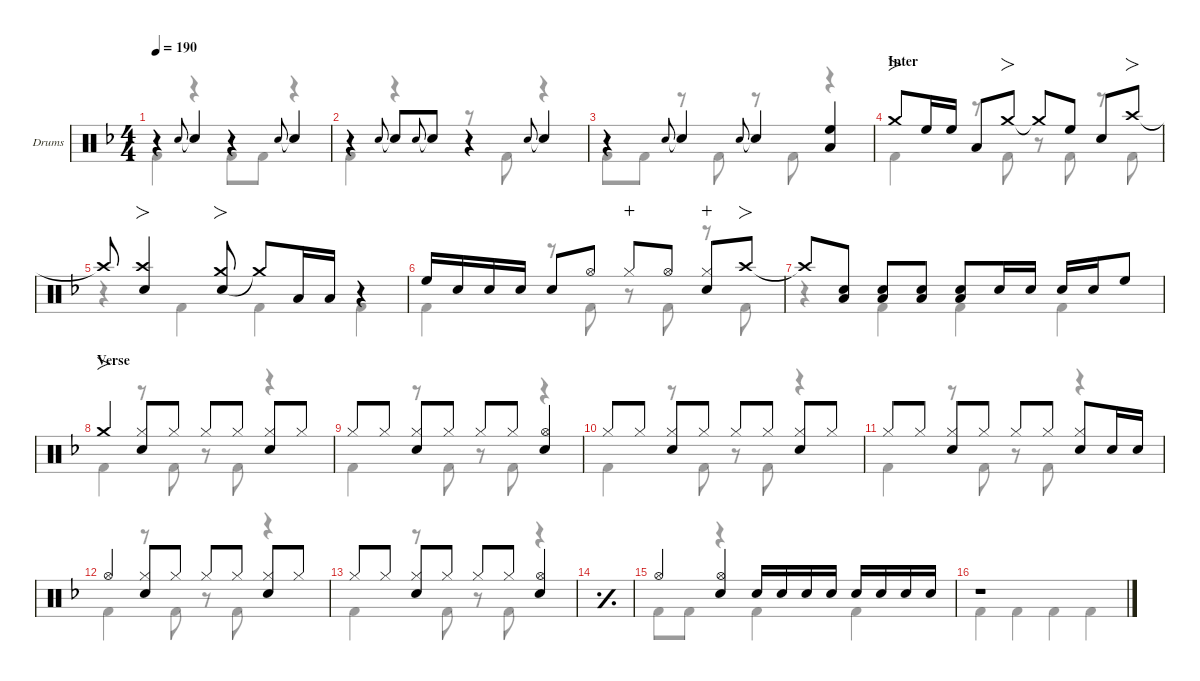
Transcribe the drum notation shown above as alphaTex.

\defaultSystemsLayout 4
\hideDynamics
\bracketExtendMode nobrackets
\firstSystemTrackNameOrientation horizontal
\track ("Drums" "Drums") {defaultSystemsLayout 4 instrument percussion}
\staff {score}
\articulation defaults
\voice
\ts (4 4)
\tempo 190
\clef neutral
\ks f
r.4{dy f} "Snare (hit) 2"{acc forcenatural}.8{gr onbeat} "Snare (hit) 2"{t acc forcenatural}.4 r.4 "Snare (hit) 2"{acc forcenatural}.8{gr onbeat} "Snare (hit) 2"{t acc forcenatural}.4 |
r.4 "Snare (hit) 2"{acc forcenatural}.8{gr onbeat} "Snare (hit) 2"{t acc forcenatural}.8 "Snare (hit) 2"{acc forcenatural}.8{gr onbeat} "Snare (hit) 2"{t acc forcenatural}.8 r.4 "Snare (hit) 2"{acc forcenatural}.8{gr onbeat} "Snare (hit) 2"{t acc forcenatural}.4 |
r.4 "Snare (hit) 2"{acc forcenatural}.8{gr onbeat} "Snare (hit) 2"{t acc forcenatural}.4 "Snare (hit) 2"{acc forcenatural}.8{gr onbeat} "Snare (hit) 2"{t acc forcenatural}.4 ("Low Tom (hit)"{acc forcenatural} "High Floor Tom (hit)"{acc forcenatural}).4 |
\section ("" "Inter")
"Crash medium (hit)"{acc forcenatural}.8{fo} "High Floor Tom (hit)"{acc forcenatural}.16 "High Floor Tom (hit)"{acc forcenatural}.16{beam split} "Low Tom (hit)"{acc forcenatural}.8 "Crash medium (hit)"{acc forcenatural}.8{fo} "Crash medium (hit)"{t acc forcenatural}.8 "High Floor Tom (hit)"{acc forcenatural}.8 "Snare (hit) 2"{acc forcenatural}.8 "Crash high (hit)"{acc forcenatural}.8{fo} |
"Crash high (hit)"{t acc forcenatural}.8 ("Snare (hit) 2"{acc forcenatural} "Crash high (hit)"{acc forcenatural}).4{fo} ("Snare (hit) 2"{acc forcenatural} "Crash medium (hit)"{acc forcenatural}).8{fo} "Crash medium (hit)"{t acc forcenatural}.8 "Low Tom (hit)"{acc forcenatural}.16 "Low Tom (hit)"{acc forcenatural}.16 r.4 |
"High Floor Tom (hit)"{acc forcenatural}.16 "Snare (hit) 2"{acc forcenatural}.16{dy mf} "Snare (hit) 2"{acc forcenatural}.16{dy f} "Snare (hit) 2"{acc forcenatural}.16{dy mf beam split} "Snare (hit) 2"{acc forcenatural}.8{dy f} "Hi-Hat (open)"{acc forcenatural}.8 "Hi-Hat (closed)"{acc forcenatural}.8{dy mp wahc} "Hi-Hat (open)"{acc forcenatural}.8{dy f} ("Hi-Hat (closed)"{acc forcenatural} "Snare (hit) 2"{acc forcenatural}).8{wahc} "Crash high (hit)"{acc forcenatural}.8{fo} |
"Crash high (hit)"{t acc forcenatural}.8 ("Snare (hit) 2"{acc forcenatural} "Low Tom (hit)"{acc forcenatural}).8 ("Snare (hit) 2"{acc forcenatural} "Low Tom (hit)"{acc forcenatural}).8 ("Snare (hit) 2"{acc forcenatural} "Low Tom (hit)"{acc forcenatural}).8 ("Snare (hit) 2"{acc forcenatural} "Low Tom (hit)"{acc forcenatural}).8 "Snare (hit) 2"{acc forcenatural}.16 "Snare (hit) 2"{acc forcenatural}.16{dy mf beam split} "Snare (hit) 2"{acc forcenatural}.16{dy f beam merge} "Snare (hit) 2"{acc forcenatural}.16{dy mf beam merge} "High Floor Tom (hit)"{acc forcenatural}.8{dy f} |
\section ("" "Verse")
"Crash medium (hit)"{acc forcenatural}.4{fo} ("Hi-Hat (closed)"{acc forcenatural} "Snare (hit) 2"{acc forcenatural}).8 "Hi-Hat (closed)"{acc forcenatural}.8{dy mf} "Hi-Hat (closed)"{acc forcenatural}.8{dy f} "Hi-Hat (closed)"{acc forcenatural}.8{dy mf} ("Hi-Hat (closed)"{acc forcenatural} "Snare (hit) 2"{acc forcenatural}).8{dy f} "Hi-Hat (closed)"{acc forcenatural}.8{dy mf} |
"Hi-Hat (closed)"{acc forcenatural}.8{dy f} "Hi-Hat (closed)"{acc forcenatural}.8{dy mf} ("Hi-Hat (closed)"{acc forcenatural} "Snare (hit) 2"{acc forcenatural}).8{dy f} "Hi-Hat (closed)"{acc forcenatural}.8{dy mf} "Hi-Hat (closed)"{acc forcenatural}.8{dy f} "Hi-Hat (closed)"{acc forcenatural}.8{dy mf} ("Hi-Hat (open)"{acc forcenatural} "Snare (hit) 2"{acc forcenatural}).4{dy f} |
"Hi-Hat (closed)"{acc forcenatural}.8 "Hi-Hat (closed)"{acc forcenatural}.8{dy mf} ("Hi-Hat (closed)"{acc forcenatural} "Snare (hit) 2"{acc forcenatural}).8{dy f} "Hi-Hat (closed)"{acc forcenatural}.8{dy mf} "Hi-Hat (closed)"{acc forcenatural}.8{dy f} "Hi-Hat (closed)"{acc forcenatural}.8{dy mf} ("Hi-Hat (closed)"{acc forcenatural} "Snare (hit) 2"{acc forcenatural}).8{dy f} "Hi-Hat (closed)"{acc forcenatural}.8{dy mf} |
"Hi-Hat (closed)"{acc forcenatural}.8{dy f} "Hi-Hat (closed)"{acc forcenatural}.8{dy mf} ("Hi-Hat (closed)"{acc forcenatural} "Snare (hit) 2"{acc forcenatural}).8{dy f} "Hi-Hat (closed)"{acc forcenatural}.8{dy mf} "Hi-Hat (closed)"{acc forcenatural}.8{dy f} "Hi-Hat (closed)"{acc forcenatural}.8{dy mf beam split} ("Hi-Hat (closed)"{acc forcenatural} "Snare (hit) 2"{acc forcenatural}).8{dy f} "Snare (hit) 2"{acc forcenatural}.16{dy mf} "Snare (hit) 2"{acc forcenatural}.16 |
"Hi-Hat (open)"{acc forcenatural}.4{dy f} ("Hi-Hat (closed)"{acc forcenatural} "Snare (hit) 2"{acc forcenatural}).8 "Hi-Hat (closed)"{acc forcenatural}.8{dy mf} "Hi-Hat (closed)"{acc forcenatural}.8{dy f} "Hi-Hat (closed)"{acc forcenatural}.8{dy mf} ("Hi-Hat (closed)"{acc forcenatural} "Snare (hit) 2"{acc forcenatural}).8{dy f} "Hi-Hat (closed)"{acc forcenatural}.8{dy mf} |
"Hi-Hat (closed)"{acc forcenatural}.8{dy f} "Hi-Hat (closed)"{acc forcenatural}.8{dy mf} ("Hi-Hat (closed)"{acc forcenatural} "Snare (hit) 2"{acc forcenatural}).8{dy f} "Hi-Hat (closed)"{acc forcenatural}.8{dy mf} "Hi-Hat (closed)"{acc forcenatural}.8{dy f} "Hi-Hat (closed)"{acc forcenatural}.8{dy mf} ("Hi-Hat (open)"{acc forcenatural} "Snare (hit) 2"{acc forcenatural}).4{dy f} |
\simile simple
|
\simile none "Hi-Hat (open)"{acc forcenatural}.4
("Hi-Hat (open)"{acc forcenatural} "Snare (hit) 2"{acc forcenatural}).4 "Snare (hit) 2"{acc forcenatural}.16 "Snare (hit) 2"{acc forcenatural}.16{dy mf} "Snare (hit) 2"{acc forcenatural}.16{dy f} "Snare (hit) 2"{acc forcenatural}.16{dy mf beam split} "Snare (hit) 2"{acc forcenatural}.16{dy f} "Snare (hit) 2"{acc forcenatural}.16{dy mf} "Snare (hit) 2"{acc forcenatural}.16{dy f} "Snare (hit) 2"{acc forcenatural}.16{dy mf} |
r.1
\voice
\clef neutral
\ottava regular
\simile none
\ks f "Kick (hit) 2"{acc forcenatural}.4{dy f}
r.4 "Kick (hit) 2"{acc forcenatural}.8 "Kick (hit) 2"{acc forcenatural}.8 r.4 |
"Kick (hit) 2"{acc forcenatural}.4 r.4 r.8 "Kick (hit) 2"{acc forcenatural}.8 r.4 |
"Kick (hit) 2"{acc forcenatural}.8 "Kick (hit) 2"{acc forcenatural}.8 r.8 "Kick (hit) 2"{acc forcenatural}.8 r.8 "Kick (hit) 2"{acc forcenatural}.8 r.4 |
"Kick (hit) 2"{acc forcenatural}.4 r.8 "Kick (hit) 2"{acc forcenatural}.8 r.8 "Kick (hit) 2"{acc forcenatural}.8 r.8 "Kick (hit) 2"{acc forcenatural}.8 |
r.4 "Kick (hit) 2"{acc forcenatural}.4 "Kick (hit) 2"{acc forcenatural}.4 "Kick (hit) 2"{acc forcenatural}.4 |
"Kick (hit) 2"{acc forcenatural}.4 r.8 "Kick (hit) 2"{acc forcenatural}.8 r.8 "Kick (hit) 2"{acc forcenatural}.8 r.8 "Kick (hit) 2"{acc forcenatural}.8 |
r.4 "Kick (hit) 2"{acc forcenatural}.4 "Kick (hit) 2"{acc forcenatural}.4 "Kick (hit) 2"{acc forcenatural}.4 |
"Kick (hit) 2"{acc forcenatural}.4 r.8 "Kick (hit) 2"{acc forcenatural}.8 r.8 "Kick (hit) 2"{acc forcenatural}.8 r.4 |
"Kick (hit) 2"{acc forcenatural}.4 r.8 "Kick (hit) 2"{acc forcenatural}.8 r.8 "Kick (hit) 2"{acc forcenatural}.8 r.4 |
"Kick (hit) 2"{acc forcenatural}.4 r.8 "Kick (hit) 2"{acc forcenatural}.8 r.8 "Kick (hit) 2"{acc forcenatural}.8 r.4 |
"Kick (hit) 2"{acc forcenatural}.4 r.8 "Kick (hit) 2"{acc forcenatural}.8 r.8 "Kick (hit) 2"{acc forcenatural}.8 r.4 |
"Kick (hit) 2"{acc forcenatural}.4 r.8 "Kick (hit) 2"{acc forcenatural}.8 r.8 "Kick (hit) 2"{acc forcenatural}.8 r.4 |
"Kick (hit) 2"{acc forcenatural}.4 r.8 "Kick (hit) 2"{acc forcenatural}.8 r.8 "Kick (hit) 2"{acc forcenatural}.8 r.4 |
\simile simple
|
\simile none "Kick (hit) 2"{acc forcenatural}.8 "Kick (hit) 2"{acc forcenatural}.8
r.4 "Kick (hit) 2"{acc forcenatural}.4 "Kick (hit) 2"{acc forcenatural}.4 |
"Kick (hit) 2"{acc forcenatural}.4 "Kick (hit) 2"{acc forcenatural}.4 "Kick (hit) 2"{acc forcenatural}.4 "Kick (hit) 2"{acc forcenatural}.4
